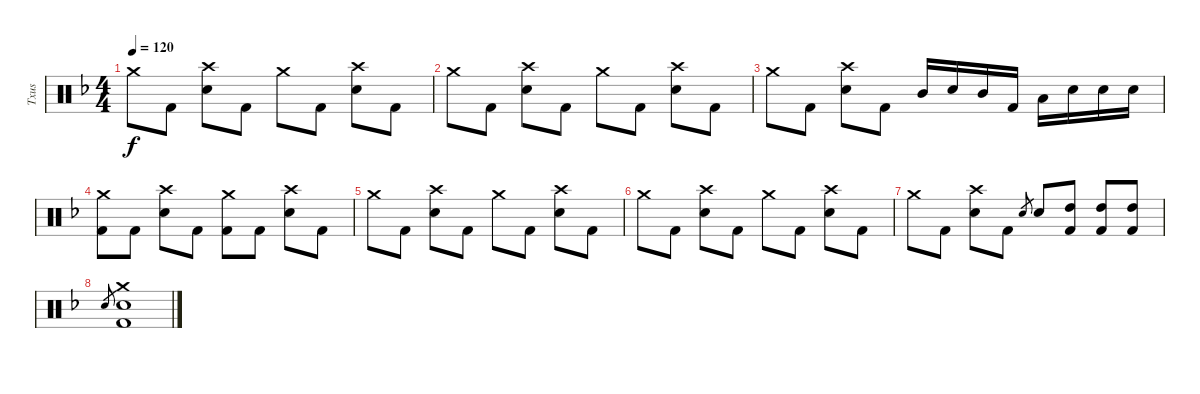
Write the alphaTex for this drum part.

\track ("Txus" "Txus") {instrument percussion}
\staff {score}
\articulation defaults
\ts (4 4)
\tempo 120
\clef neutral
\ks dminor "Crash medium (hit)".8{dy f} "Kick (hit) 2".8
("Crash high (hit)" "Electric Snare (hit)").8 "Kick (hit) 2".8 "Crash medium (hit)".8 "Kick (hit) 2".8 ("Crash high (hit)" "Electric Snare (hit)").8 "Kick (hit) 2".8 |
"Crash medium (hit)".8 "Kick (hit) 2".8 ("Crash high (hit)" "Electric Snare (hit)").8 "Kick (hit) 2".8 "Crash medium (hit)".8 "Kick (hit) 2".8 ("Crash high (hit)" "Electric Snare (hit)").8 "Kick (hit) 2".8 |
"Crash medium (hit)".8 "Kick (hit) 2".8 ("Crash high (hit)" "Electric Snare (hit)").8 "Kick (hit) 2".8 "Mid Tom (hit)".16 "Electric Snare (hit)".16 "Mid Tom (hit)".16 "Kick (hit) 2".16 "Low Tom (hit)".16 "Electric Snare (hit)".16 "Electric Snare (hit)".16 "Electric Snare (hit)".16 |
("Crash medium (hit)" "Kick (hit) 2").8 "Kick (hit) 2".8 ("Crash high (hit)" "Electric Snare (hit)").8 "Kick (hit) 2".8 ("Crash medium (hit)" "Kick (hit) 2").8 "Kick (hit) 2".8 ("Crash high (hit)" "Electric Snare (hit)").8 "Kick (hit) 2".8 |
"Crash medium (hit)".8 "Kick (hit) 2".8 ("Crash high (hit)" "Electric Snare (hit)").8 "Kick (hit) 2".8 "Crash medium (hit)".8 "Kick (hit) 2".8 ("Crash high (hit)" "Electric Snare (hit)").8 "Kick (hit) 2".8 |
"Crash medium (hit)".8 "Kick (hit) 2".8 ("Crash high (hit)" "Electric Snare (hit)").8 "Kick (hit) 2".8 "Crash medium (hit)".8 "Kick (hit) 2".8 ("Crash high (hit)" "Electric Snare (hit)").8 "Kick (hit) 2".8 |
"Crash medium (hit)".8 "Kick (hit) 2".8 ("Crash high (hit)" "Electric Snare (hit)").8 "Kick (hit) 2".8 "Electric Snare (hit)".8{gr} "Electric Snare (hit)".8 ("High Tom (hit)" "Kick (hit) 2").8 ("High Tom (hit)" "Kick (hit) 2").8 ("High Tom (hit)" "Kick (hit) 2").8 |
"Electric Snare (hit)".8{gr} ("Electric Snare (hit)" "Crash medium (hit)" "Kick (hit) 2").1
